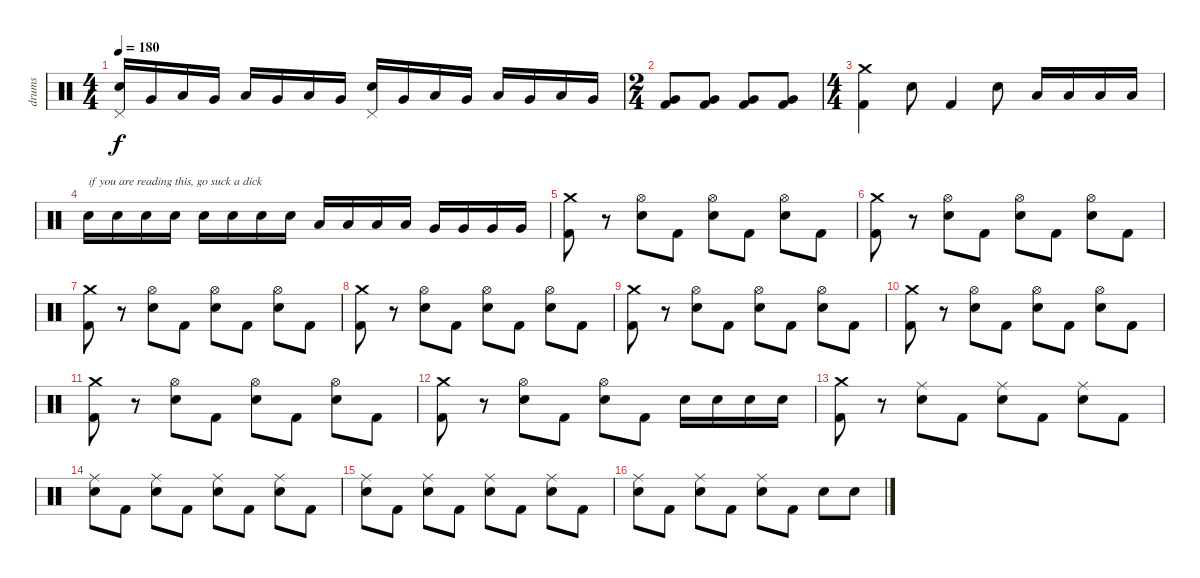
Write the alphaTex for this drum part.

\track ("drums" "drums") {instrument percussion}
\staff {score}
\articulation defaults
\ts (4 4)
\tempo 180
\clef neutral
\ks c
("Pedal Hi-Hat (hit)" "Snare (hit) 2").16{dy f} "Very Low Tom (hit)".16 "Low Tom (hit)".16 "Very Low Tom (hit)".16 "Low Tom (hit)".16 "Very Low Tom (hit)".16 "Low Tom (hit)".16 "Very Low Tom (hit)".16 ("Pedal Hi-Hat (hit)" "Snare (hit) 2").16 "Very Low Tom (hit)".16 "Low Tom (hit)".16 "Very Low Tom (hit)".16 "Low Tom (hit)".16 "Very Low Tom (hit)".16 "Low Tom (hit)".16 "Very Low Tom (hit)".16 |
\ts (2 4)
("Very Low Tom (hit)" "Kick (hit) 2").8 ("Very Low Tom (hit)" "Kick (hit) 2").8 ("Very Low Tom (hit)" "Kick (hit) 2").8 ("Very Low Tom (hit)" "Kick (hit) 2").8 |
\ts (4 4)
("Crash medium (hit)" "Kick (hit) 2").4 "Snare (hit) 2".8 "Kick (hit) 2".4 "Snare (hit) 2".8 "Low Tom (hit)".16 "Low Tom (hit)".16 "Low Tom (hit)".16 "Low Tom (hit)".16 |
"Snare (hit) 2".16{txt "if you are reading this, go suck a dick"} "Snare (hit) 2".16 "Snare (hit) 2".16 "Snare (hit) 2".16 "Snare (hit) 2".16 "Snare (hit) 2".16 "Snare (hit) 2".16 "Snare (hit) 2".16 "Low Tom (hit)".16 "Low Tom (hit)".16 "Low Tom (hit)".16 "Low Tom (hit)".16 "Very Low Tom (hit)".16 "Very Low Tom (hit)".16 "Very Low Tom (hit)".16 "Very Low Tom (hit)".16 |
("Crash medium (hit)" "Kick (hit) 2").8 r.8 ("Hi-Hat (open)" "Snare (hit) 2").8 "Kick (hit) 2".8 ("Hi-Hat (open)" "Snare (hit) 2").8 "Kick (hit) 2".8 ("Hi-Hat (open)" "Snare (hit) 2").8 "Kick (hit) 2".8 |
("Crash medium (hit)" "Kick (hit) 2").8 r.8 ("Hi-Hat (open)" "Snare (hit) 2").8 "Kick (hit) 2".8 ("Hi-Hat (open)" "Snare (hit) 2").8 "Kick (hit) 2".8 ("Hi-Hat (open)" "Snare (hit) 2").8 "Kick (hit) 2".8 |
("Crash medium (hit)" "Kick (hit) 2").8 r.8 ("Hi-Hat (open)" "Snare (hit) 2").8 "Kick (hit) 2".8 ("Hi-Hat (open)" "Snare (hit) 2").8 "Kick (hit) 2".8 ("Hi-Hat (open)" "Snare (hit) 2").8 "Kick (hit) 2".8 |
("Crash medium (hit)" "Kick (hit) 2").8 r.8 ("Hi-Hat (open)" "Snare (hit) 2").8 "Kick (hit) 2".8 ("Hi-Hat (open)" "Snare (hit) 2").8 "Kick (hit) 2".8 ("Hi-Hat (open)" "Snare (hit) 2").8 "Kick (hit) 2".8 |
("Crash medium (hit)" "Kick (hit) 2").8 r.8 ("Hi-Hat (open)" "Snare (hit) 2").8 "Kick (hit) 2".8 ("Hi-Hat (open)" "Snare (hit) 2").8 "Kick (hit) 2".8 ("Hi-Hat (open)" "Snare (hit) 2").8 "Kick (hit) 2".8 |
("Crash medium (hit)" "Kick (hit) 2").8 r.8 ("Hi-Hat (open)" "Snare (hit) 2").8 "Kick (hit) 2".8 ("Hi-Hat (open)" "Snare (hit) 2").8 "Kick (hit) 2".8 ("Hi-Hat (open)" "Snare (hit) 2").8 "Kick (hit) 2".8 |
("Crash medium (hit)" "Kick (hit) 2").8 r.8 ("Hi-Hat (open)" "Snare (hit) 2").8 "Kick (hit) 2".8 ("Hi-Hat (open)" "Snare (hit) 2").8 "Kick (hit) 2".8 ("Hi-Hat (open)" "Snare (hit) 2").8 "Kick (hit) 2".8 |
("Crash medium (hit)" "Kick (hit) 2").8 r.8 ("Hi-Hat (open)" "Snare (hit) 2").8 "Kick (hit) 2".8 ("Hi-Hat (open)" "Snare (hit) 2").8 "Kick (hit) 2".8 "Snare (hit) 2".16 "Snare (hit) 2".16 "Snare (hit) 2".16 "Snare (hit) 2".16 |
("Crash medium (hit)" "Kick (hit) 2").8 r.8 ("Ride (middle)" "Snare (hit) 2").8 "Kick (hit) 2".8 ("Ride (middle)" "Snare (hit) 2").8 "Kick (hit) 2".8 ("Ride (middle)" "Snare (hit) 2").8 "Kick (hit) 2".8 |
("Ride (middle)" "Snare (hit) 2").8 "Kick (hit) 2".8 ("Ride (middle)" "Snare (hit) 2").8 "Kick (hit) 2".8 ("Ride (middle)" "Snare (hit) 2").8 "Kick (hit) 2".8 ("Ride (middle)" "Snare (hit) 2").8 "Kick (hit) 2".8 |
("Ride (middle)" "Snare (hit) 2").8 "Kick (hit) 2".8 ("Ride (middle)" "Snare (hit) 2").8 "Kick (hit) 2".8 ("Ride (middle)" "Snare (hit) 2").8 "Kick (hit) 2".8 ("Ride (middle)" "Snare (hit) 2").8 "Kick (hit) 2".8 |
("Ride (middle)" "Snare (hit) 2").8 "Kick (hit) 2".8 ("Ride (middle)" "Snare (hit) 2").8 "Kick (hit) 2".8 ("Ride (middle)" "Snare (hit) 2").8 "Kick (hit) 2".8 "Snare (hit) 2".8 "Snare (hit) 2".8
